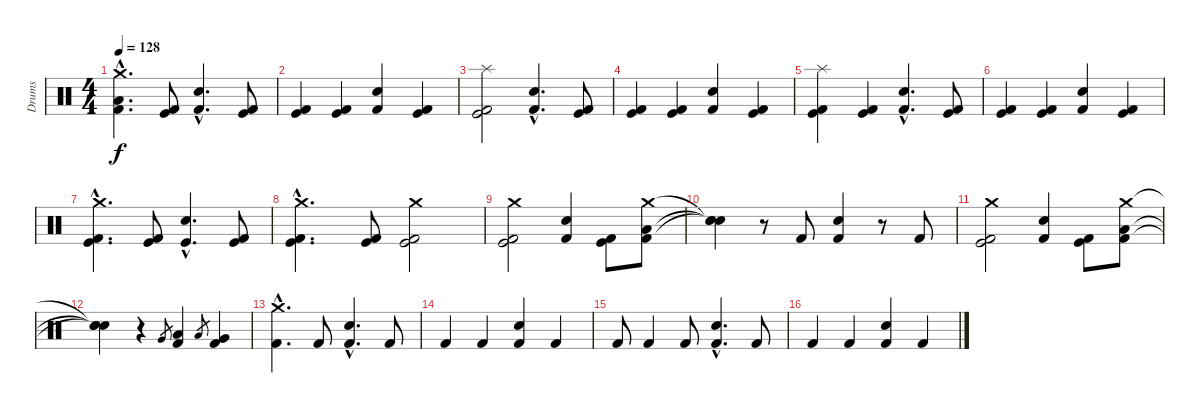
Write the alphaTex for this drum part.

\track ("Drums" "Drums") {instrument percussion}
\staff {score}
\articulation defaults
\ts (4 4)
\tempo 128
\clef neutral
\ks c
("Crash medium (hit)"{hac} "Low Floor Tom (hit)"{hac} "Kick (hit) 2"{hac}).4{d dy f} ("Kick (hit)" "Kick (hit) 2").8 ("Snare (hit) 2"{hac} "Kick (hit) 2"{hac}).4{d} ("Kick (hit)" "Kick (hit) 2").8 |
("Kick (hit)" "Kick (hit) 2").4 ("Kick (hit)" "Kick (hit) 2").4 ("Snare (hit) 2" "Kick (hit) 2").4 ("Kick (hit)" "Kick (hit) 2").4 |
("Splash (hit)" "Kick (hit)" "Kick (hit) 2").2 ("Snare (hit) 2"{hac} "Kick (hit) 2"{hac}).4{d} ("Kick (hit)" "Kick (hit) 2").8 |
("Kick (hit)" "Kick (hit) 2").4 ("Kick (hit)" "Kick (hit) 2").4 ("Snare (hit) 2" "Kick (hit) 2").4 ("Kick (hit)" "Kick (hit) 2").4 |
("Splash (hit)" "Kick (hit)" "Kick (hit) 2").4 ("Kick (hit)" "Kick (hit) 2").4 ("Snare (hit) 2"{hac} "Kick (hit) 2"{hac}).4{d} ("Kick (hit)" "Kick (hit) 2").8 |
("Kick (hit)" "Kick (hit) 2").4 ("Kick (hit)" "Kick (hit) 2").4 ("Snare (hit) 2" "Kick (hit) 2").4 ("Kick (hit)" "Kick (hit) 2").4 |
("Crash medium (hit)"{hac} "Kick (hit)"{hac} "Kick (hit) 2"{hac}).4{d} ("Kick (hit)" "Kick (hit) 2").8 ("Snare (hit) 2"{hac} "Kick (hit)"{hac}).4{d} ("Kick (hit)" "Kick (hit) 2").8 |
("Crash medium (hit)"{hac} "Kick (hit)"{hac} "Kick (hit) 2"{hac}).4{d} ("Kick (hit)" "Kick (hit) 2").8 ("Crash medium (hit)" "Kick (hit)" "Kick (hit) 2").2 |
("Crash medium (hit)" "Kick (hit)" "Kick (hit) 2").2 ("Snare (hit) 2" "Kick (hit) 2").4 ("Kick (hit)" "Kick (hit) 2").8 ("Crash medium (hit)" "Low Floor Tom (hit)" "Kick (hit) 2").8 |
("Snare (hit)"{t} "Snare (hit)"{t} "Snare (hit)"{t}).4 r.8 "Kick (hit) 2".8 ("Snare (hit) 2" "Kick (hit) 2").4 r.8 "Kick (hit) 2".8 |
("Crash medium (hit)" "Kick (hit)" "Kick (hit) 2").2 ("Snare (hit) 2" "Kick (hit) 2").4 ("Kick (hit)" "Kick (hit) 2").8 ("Crash medium (hit)" "Low Floor Tom (hit)" "Kick (hit) 2").8 |
("Snare (hit)"{t} "Snare (hit)"{t} "Snare (hit)"{t}).4 r.4 "Very Low Tom (hit)".8{gr} ("Low Tom (hit)" "Kick (hit) 2").4 "Low Floor Tom (hit)".8{gr} ("Very Low Tom (hit)" "Kick (hit) 2").4 |
("Crash medium (hit)"{hac} "Kick (hit) 2"{hac}).4{d} "Kick (hit) 2".8 ("Snare (hit) 2"{hac} "Kick (hit) 2"{hac}).4{d} "Kick (hit) 2".8 |
"Kick (hit) 2".4 "Kick (hit) 2".4 ("Snare (hit) 2" "Kick (hit) 2").4 "Kick (hit) 2".4 |
"Kick (hit) 2".8 "Kick (hit) 2".4 "Kick (hit) 2".8 ("Snare (hit) 2"{hac} "Kick (hit) 2"{hac}).4{d} "Kick (hit) 2".8 |
"Kick (hit) 2".4 "Kick (hit) 2".4 ("Snare (hit) 2" "Kick (hit) 2").4 "Kick (hit) 2".4
